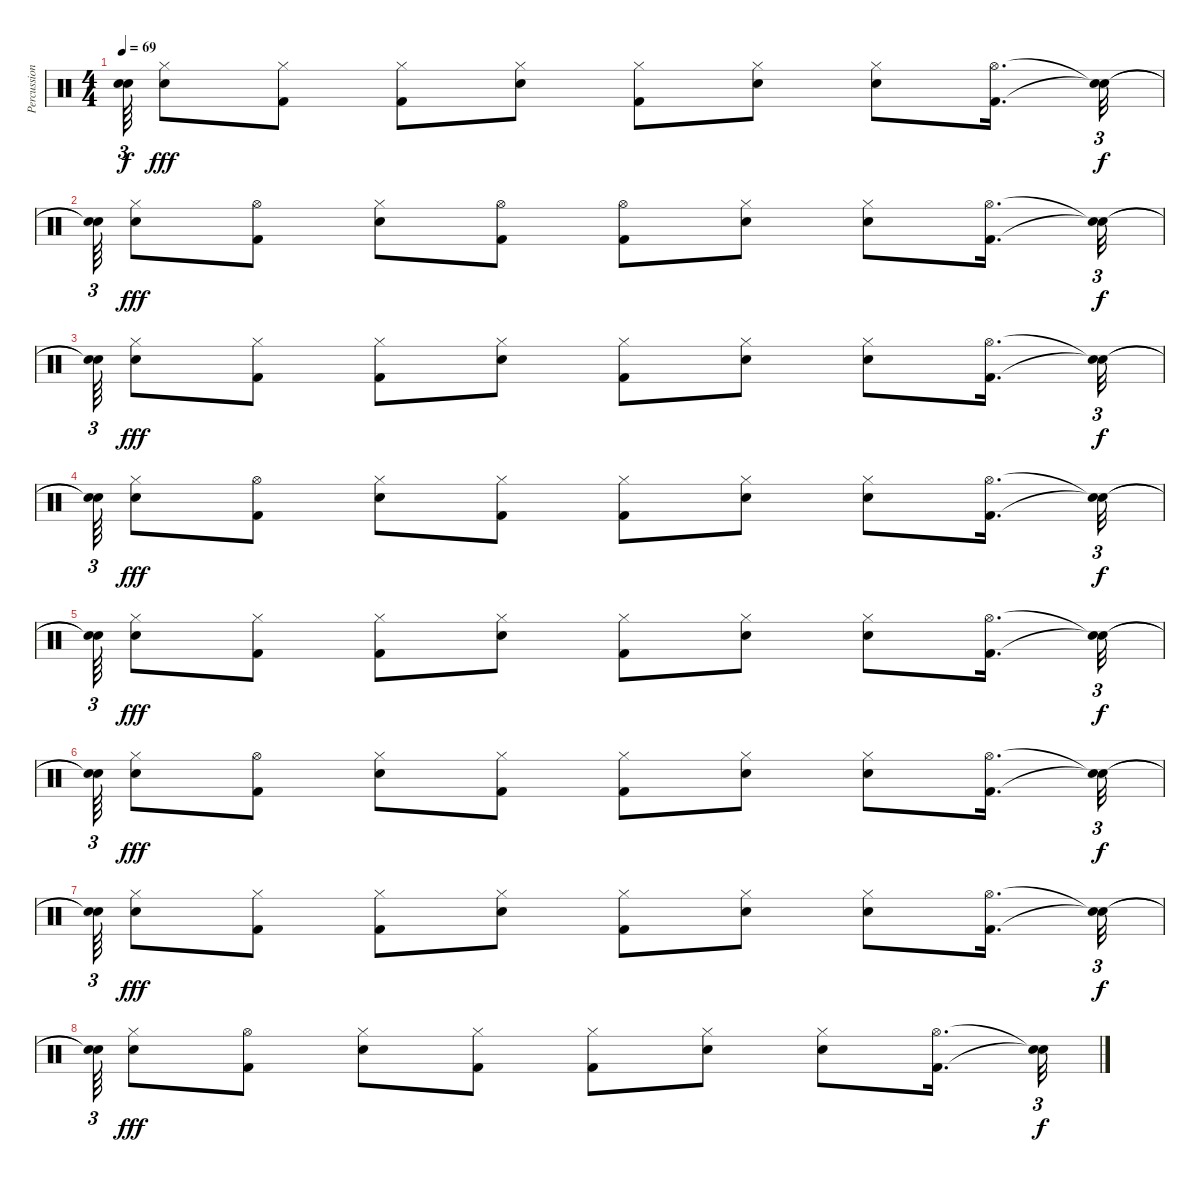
\track ("Percussioni" "Percussion") {instrument percussion}
\staff {score}
\articulation defaults
\ts (4 4)
\tempo 69
\clef neutral
\ks c
("Snare (hit)"{t} "Snare (hit)"{t}).64{tu (3 2) dy f} ("Hi-Hat (closed)" "Snare (hit) 2").8{dy fff} ("Hi-Hat (closed)" "Kick (hit) 2").8 ("Hi-Hat (closed)" "Kick (hit) 2").8 ("Hi-Hat (closed)" "Snare (hit) 2").8 ("Hi-Hat (closed)" "Kick (hit) 2").8 ("Hi-Hat (closed)" "Snare (hit) 2").8 ("Hi-Hat (closed)" "Snare (hit) 2").8 ("Hi-Hat (open)" "Kick (hit) 2").16{d} ("Snare (hit)"{t} "Snare (hit)"{t}).32{tu (3 2) dy f} |
("Snare (hit)"{t} "Snare (hit)"{t}).64{tu (3 2)} ("Hi-Hat (closed)" "Snare (hit) 2").8{dy fff} ("Hi-Hat (open)" "Kick (hit) 2").8 ("Hi-Hat (closed)" "Snare (hit) 2").8 ("Hi-Hat (open)" "Kick (hit) 2").8 ("Hi-Hat (open)" "Kick (hit) 2").8 ("Hi-Hat (closed)" "Snare (hit) 2").8 ("Hi-Hat (closed)" "Snare (hit) 2").8 ("Hi-Hat (open)" "Kick (hit) 2").16{d} ("Snare (hit)"{t} "Snare (hit)"{t}).32{tu (3 2) dy f} |
("Snare (hit)"{t} "Snare (hit)"{t}).64{tu (3 2)} ("Hi-Hat (closed)" "Snare (hit) 2").8{dy fff} ("Hi-Hat (closed)" "Kick (hit) 2").8 ("Hi-Hat (closed)" "Kick (hit) 2").8 ("Hi-Hat (closed)" "Snare (hit) 2").8 ("Hi-Hat (closed)" "Kick (hit) 2").8 ("Hi-Hat (closed)" "Snare (hit) 2").8 ("Hi-Hat (closed)" "Snare (hit) 2").8 ("Hi-Hat (open)" "Kick (hit) 2").16{d} ("Snare (hit)"{t} "Snare (hit)"{t}).32{tu (3 2) dy f} |
("Snare (hit)"{t} "Snare (hit)"{t}).64{tu (3 2)} ("Hi-Hat (closed)" "Snare (hit) 2").8{dy fff} ("Hi-Hat (open)" "Kick (hit) 2").8 ("Hi-Hat (closed)" "Snare (hit) 2").8 ("Hi-Hat (closed)" "Kick (hit) 2").8 ("Hi-Hat (closed)" "Kick (hit) 2").8 ("Hi-Hat (closed)" "Snare (hit) 2").8 ("Hi-Hat (closed)" "Snare (hit) 2").8 ("Hi-Hat (open)" "Kick (hit) 2").16{d} ("Snare (hit)"{t} "Snare (hit)"{t}).32{tu (3 2) dy f} |
("Snare (hit)"{t} "Snare (hit)"{t}).64{tu (3 2)} ("Hi-Hat (closed)" "Snare (hit) 2").8{dy fff} ("Hi-Hat (closed)" "Kick (hit) 2").8 ("Hi-Hat (closed)" "Kick (hit) 2").8 ("Hi-Hat (closed)" "Snare (hit) 2").8 ("Hi-Hat (closed)" "Kick (hit) 2").8 ("Hi-Hat (closed)" "Snare (hit) 2").8 ("Hi-Hat (closed)" "Snare (hit) 2").8 ("Hi-Hat (open)" "Kick (hit) 2").16{d} ("Snare (hit)"{t} "Snare (hit)"{t}).32{tu (3 2) dy f} |
("Snare (hit)"{t} "Snare (hit)"{t}).64{tu (3 2)} ("Hi-Hat (closed)" "Snare (hit) 2").8{dy fff} ("Hi-Hat (open)" "Kick (hit) 2").8 ("Hi-Hat (closed)" "Snare (hit) 2").8 ("Hi-Hat (closed)" "Kick (hit) 2").8 ("Hi-Hat (closed)" "Kick (hit) 2").8 ("Hi-Hat (closed)" "Snare (hit) 2").8 ("Hi-Hat (closed)" "Snare (hit) 2").8 ("Hi-Hat (open)" "Kick (hit) 2").16{d} ("Snare (hit)"{t} "Snare (hit)"{t}).32{tu (3 2) dy f} |
("Snare (hit)"{t} "Snare (hit)"{t}).64{tu (3 2)} ("Hi-Hat (closed)" "Snare (hit) 2").8{dy fff} ("Hi-Hat (closed)" "Kick (hit) 2").8 ("Hi-Hat (closed)" "Kick (hit) 2").8 ("Hi-Hat (closed)" "Snare (hit) 2").8 ("Hi-Hat (closed)" "Kick (hit) 2").8 ("Hi-Hat (closed)" "Snare (hit) 2").8 ("Hi-Hat (closed)" "Snare (hit) 2").8 ("Hi-Hat (open)" "Kick (hit) 2").16{d} ("Snare (hit)"{t} "Snare (hit)"{t}).32{tu (3 2) dy f} |
("Snare (hit)"{t} "Snare (hit)"{t}).64{tu (3 2)} ("Hi-Hat (closed)" "Snare (hit) 2").8{dy fff} ("Hi-Hat (open)" "Kick (hit) 2").8 ("Hi-Hat (closed)" "Snare (hit) 2").8 ("Hi-Hat (closed)" "Kick (hit) 2").8 ("Hi-Hat (closed)" "Kick (hit) 2").8 ("Hi-Hat (closed)" "Snare (hit) 2").8 ("Hi-Hat (closed)" "Snare (hit) 2").8 ("Hi-Hat (open)" "Kick (hit) 2").16{d} ("Snare (hit)"{t} "Snare (hit)"{t}).32{tu (3 2) dy f}
